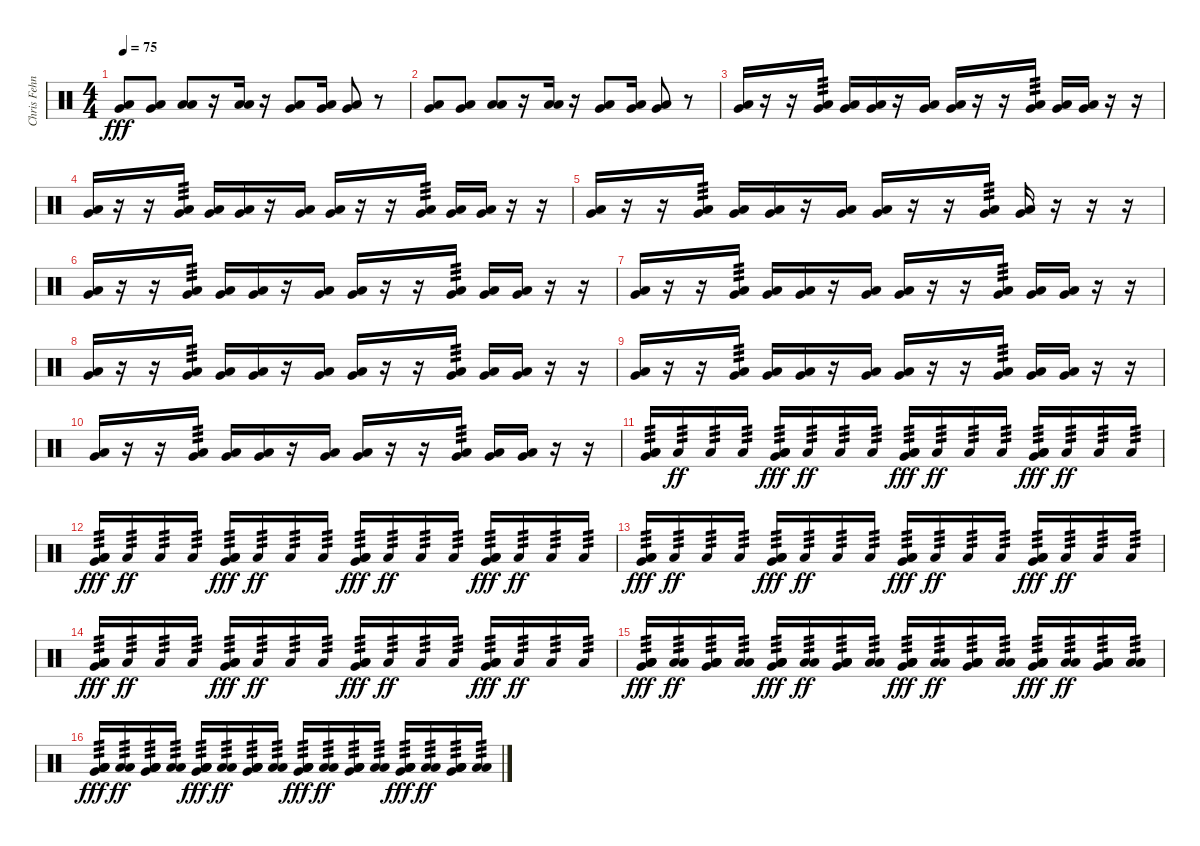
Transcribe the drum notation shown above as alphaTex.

\track ("Chris Fehn" "Chris Fehn") {instrument percussion}
\staff {score}
\articulation defaults
\ts (4 4)
\tempo 75
\clef neutral
\ks c
("Very Low Tom (hit)" "Low Floor Tom (hit)").8{dy fff} ("Very Low Tom (hit)" "Low Floor Tom (hit)").8 ("Low Tom (hit)" "Low Tom (hit)").8 r.16 ("Low Tom (hit)" "Low Tom (hit)").16 r.16 ("Low Floor Tom (hit)" "Very Low Tom (hit)").8 ("Very Low Tom (hit)" "Low Floor Tom (hit)").16 ("Very Low Tom (hit)" "Low Floor Tom (hit)").8 r.8 |
("Very Low Tom (hit)" "Low Floor Tom (hit)").8 ("Very Low Tom (hit)" "Low Floor Tom (hit)").8 ("Low Tom (hit)" "Low Tom (hit)").8 r.16 ("Low Tom (hit)" "Low Tom (hit)").16 r.16 ("Low Floor Tom (hit)" "Very Low Tom (hit)").8 ("Very Low Tom (hit)" "Low Floor Tom (hit)").16 ("Very Low Tom (hit)" "Low Floor Tom (hit)").8 r.8 |
("Very Low Tom (hit)" "Low Floor Tom (hit)").16 r.16 r.16 ("Very Low Tom (hit)" "Low Floor Tom (hit)").16{tp 3} ("Very Low Tom (hit)" "Low Floor Tom (hit)").16 ("Very Low Tom (hit)" "Low Floor Tom (hit)").16 r.16 ("Very Low Tom (hit)" "Low Floor Tom (hit)").16 ("Very Low Tom (hit)" "Low Floor Tom (hit)").16 r.16 r.16 ("Very Low Tom (hit)" "Low Floor Tom (hit)").16{tp 3} ("Very Low Tom (hit)" "Low Floor Tom (hit)").16 ("Very Low Tom (hit)" "Low Floor Tom (hit)").16 r.16 r.16 |
("Very Low Tom (hit)" "Low Floor Tom (hit)").16 r.16 r.16 ("Very Low Tom (hit)" "Low Floor Tom (hit)").16{tp 3} ("Very Low Tom (hit)" "Low Floor Tom (hit)").16 ("Very Low Tom (hit)" "Low Floor Tom (hit)").16 r.16 ("Very Low Tom (hit)" "Low Floor Tom (hit)").16 ("Very Low Tom (hit)" "Low Floor Tom (hit)").16 r.16 r.16 ("Very Low Tom (hit)" "Low Floor Tom (hit)").16{tp 3} ("Very Low Tom (hit)" "Low Floor Tom (hit)").16 ("Very Low Tom (hit)" "Low Floor Tom (hit)").16 r.16 r.16 |
("Very Low Tom (hit)" "Low Floor Tom (hit)").16 r.16 r.16 ("Very Low Tom (hit)" "Low Floor Tom (hit)").16{tp 3} ("Very Low Tom (hit)" "Low Floor Tom (hit)").16 ("Very Low Tom (hit)" "Low Floor Tom (hit)").16 r.16 ("Very Low Tom (hit)" "Low Floor Tom (hit)").16 ("Very Low Tom (hit)" "Low Floor Tom (hit)").16 r.16 r.16 ("Very Low Tom (hit)" "Low Floor Tom (hit)").16{tp 3} ("Very Low Tom (hit)" "Low Floor Tom (hit)").16 r.16 r.16 r.16 |
("Very Low Tom (hit)" "Low Floor Tom (hit)").16 r.16 r.16 ("Very Low Tom (hit)" "Low Floor Tom (hit)").16{tp 3} ("Very Low Tom (hit)" "Low Floor Tom (hit)").16 ("Very Low Tom (hit)" "Low Floor Tom (hit)").16 r.16 ("Very Low Tom (hit)" "Low Floor Tom (hit)").16 ("Very Low Tom (hit)" "Low Floor Tom (hit)").16 r.16 r.16 ("Very Low Tom (hit)" "Low Floor Tom (hit)").16{tp 3} ("Very Low Tom (hit)" "Low Floor Tom (hit)").16 ("Very Low Tom (hit)" "Low Floor Tom (hit)").16 r.16 r.16 |
("Very Low Tom (hit)" "Low Floor Tom (hit)").16 r.16 r.16 ("Very Low Tom (hit)" "Low Floor Tom (hit)").16{tp 3} ("Very Low Tom (hit)" "Low Floor Tom (hit)").16 ("Very Low Tom (hit)" "Low Floor Tom (hit)").16 r.16 ("Very Low Tom (hit)" "Low Floor Tom (hit)").16 ("Very Low Tom (hit)" "Low Floor Tom (hit)").16 r.16 r.16 ("Very Low Tom (hit)" "Low Floor Tom (hit)").16{tp 3} ("Very Low Tom (hit)" "Low Floor Tom (hit)").16 ("Very Low Tom (hit)" "Low Floor Tom (hit)").16 r.16 r.16 |
("Very Low Tom (hit)" "Low Floor Tom (hit)").16 r.16 r.16 ("Very Low Tom (hit)" "Low Floor Tom (hit)").16{tp 3} ("Very Low Tom (hit)" "Low Floor Tom (hit)").16 ("Very Low Tom (hit)" "Low Floor Tom (hit)").16 r.16 ("Very Low Tom (hit)" "Low Floor Tom (hit)").16 ("Very Low Tom (hit)" "Low Floor Tom (hit)").16 r.16 r.16 ("Very Low Tom (hit)" "Low Floor Tom (hit)").16{tp 3} ("Very Low Tom (hit)" "Low Floor Tom (hit)").16 ("Very Low Tom (hit)" "Low Floor Tom (hit)").16 r.16 r.16 |
("Very Low Tom (hit)" "Low Floor Tom (hit)").16 r.16 r.16 ("Very Low Tom (hit)" "Low Floor Tom (hit)").16{tp 3} ("Very Low Tom (hit)" "Low Floor Tom (hit)").16 ("Very Low Tom (hit)" "Low Floor Tom (hit)").16 r.16 ("Very Low Tom (hit)" "Low Floor Tom (hit)").16 ("Very Low Tom (hit)" "Low Floor Tom (hit)").16 r.16 r.16 ("Very Low Tom (hit)" "Low Floor Tom (hit)").16{tp 3} ("Very Low Tom (hit)" "Low Floor Tom (hit)").16 ("Very Low Tom (hit)" "Low Floor Tom (hit)").16 r.16 r.16 |
("Very Low Tom (hit)" "Low Floor Tom (hit)").16 r.16 r.16 ("Very Low Tom (hit)" "Low Floor Tom (hit)").16{tp 3} ("Very Low Tom (hit)" "Low Floor Tom (hit)").16 ("Very Low Tom (hit)" "Low Floor Tom (hit)").16 r.16 ("Very Low Tom (hit)" "Low Floor Tom (hit)").16 ("Very Low Tom (hit)" "Low Floor Tom (hit)").16 r.16 r.16 ("Very Low Tom (hit)" "Low Floor Tom (hit)").16{tp 3} ("Very Low Tom (hit)" "Low Floor Tom (hit)").16 ("Very Low Tom (hit)" "Low Floor Tom (hit)").16 r.16 r.16 |
("Low Floor Tom (hit)" "Very Low Tom (hit)" "Low Floor Tom (hit)").16{tp 3} "Low Floor Tom (hit)".16{tp 3 dy ff} "Low Floor Tom (hit)".16{tp 3} "Low Floor Tom (hit)".16{tp 3} ("Low Floor Tom (hit)" "Very Low Tom (hit)" "Low Floor Tom (hit)").16{tp 3 dy fff} "Low Floor Tom (hit)".16{tp 3 dy ff} "Low Floor Tom (hit)".16{tp 3} "Low Floor Tom (hit)".16{tp 3} ("Low Floor Tom (hit)" "Very Low Tom (hit)" "Low Floor Tom (hit)").16{tp 3 dy fff} "Low Floor Tom (hit)".16{tp 3 dy ff} "Low Floor Tom (hit)".16{tp 3} "Low Floor Tom (hit)".16{tp 3} ("Low Floor Tom (hit)" "Very Low Tom (hit)" "Low Floor Tom (hit)").16{tp 3 dy fff} "Low Floor Tom (hit)".16{tp 3 dy ff} "Low Floor Tom (hit)".16{tp 3} "Low Floor Tom (hit)".16{tp 3} |
("Low Floor Tom (hit)" "Very Low Tom (hit)" "Low Floor Tom (hit)").16{tp 3 dy fff} "Low Floor Tom (hit)".16{tp 3 dy ff} "Low Floor Tom (hit)".16{tp 3} "Low Floor Tom (hit)".16{tp 3} ("Low Floor Tom (hit)" "Very Low Tom (hit)" "Low Floor Tom (hit)").16{tp 3 dy fff} "Low Floor Tom (hit)".16{tp 3 dy ff} "Low Floor Tom (hit)".16{tp 3} "Low Floor Tom (hit)".16{tp 3} ("Low Floor Tom (hit)" "Very Low Tom (hit)" "Low Floor Tom (hit)").16{tp 3 dy fff} "Low Floor Tom (hit)".16{tp 3 dy ff} "Low Floor Tom (hit)".16{tp 3} "Low Floor Tom (hit)".16{tp 3} ("Low Floor Tom (hit)" "Very Low Tom (hit)" "Low Floor Tom (hit)").16{tp 3 dy fff} "Low Floor Tom (hit)".16{tp 3 dy ff} "Low Floor Tom (hit)".16{tp 3} "Low Floor Tom (hit)".16{tp 3} |
("Low Floor Tom (hit)" "Very Low Tom (hit)" "Low Floor Tom (hit)").16{tp 3 dy fff} "Low Floor Tom (hit)".16{tp 3 dy ff} "Low Floor Tom (hit)".16{tp 3} "Low Floor Tom (hit)".16{tp 3} ("Low Floor Tom (hit)" "Very Low Tom (hit)" "Low Floor Tom (hit)").16{tp 3 dy fff} "Low Floor Tom (hit)".16{tp 3 dy ff} "Low Floor Tom (hit)".16{tp 3} "Low Floor Tom (hit)".16{tp 3} ("Low Floor Tom (hit)" "Very Low Tom (hit)" "Low Floor Tom (hit)").16{tp 3 dy fff} "Low Floor Tom (hit)".16{tp 3 dy ff} "Low Floor Tom (hit)".16{tp 3} "Low Floor Tom (hit)".16{tp 3} ("Low Floor Tom (hit)" "Very Low Tom (hit)" "Low Floor Tom (hit)").16{tp 3 dy fff} "Low Floor Tom (hit)".16{tp 3 dy ff} "Low Floor Tom (hit)".16{tp 3} "Low Floor Tom (hit)".16{tp 3} |
("Low Floor Tom (hit)" "Very Low Tom (hit)" "Low Floor Tom (hit)").16{tp 3 dy fff} "Low Floor Tom (hit)".16{tp 3 dy ff} "Low Floor Tom (hit)".16{tp 3} "Low Floor Tom (hit)".16{tp 3} ("Low Floor Tom (hit)" "Very Low Tom (hit)" "Low Floor Tom (hit)").16{tp 3 dy fff} "Low Floor Tom (hit)".16{tp 3 dy ff} "Low Floor Tom (hit)".16{tp 3} "Low Floor Tom (hit)".16{tp 3} ("Low Floor Tom (hit)" "Very Low Tom (hit)" "Low Floor Tom (hit)").16{tp 3 dy fff} "Low Floor Tom (hit)".16{tp 3 dy ff} "Low Floor Tom (hit)".16{tp 3} "Low Floor Tom (hit)".16{tp 3} ("Low Floor Tom (hit)" "Very Low Tom (hit)" "Low Floor Tom (hit)").16{tp 3 dy fff} "Low Floor Tom (hit)".16{tp 3 dy ff} "Low Floor Tom (hit)".16{tp 3} "Low Floor Tom (hit)".16{tp 3} |
("Low Floor Tom (hit)" "Low Floor Tom (hit)" "Very Low Tom (hit)" "Low Floor Tom (hit)").16{tp 3 dy fff} ("Low Floor Tom (hit)" "Low Floor Tom (hit)").16{tp 3 dy ff} ("Low Floor Tom (hit)" "Low Floor Tom (hit)" "Very Low Tom (hit)" "Low Floor Tom (hit)").16{tp 3} ("Low Floor Tom (hit)" "Low Floor Tom (hit)").16{tp 3} ("Low Floor Tom (hit)" "Low Floor Tom (hit)" "Very Low Tom (hit)" "Low Floor Tom (hit)").16{tp 3 dy fff} ("Low Floor Tom (hit)" "Low Floor Tom (hit)").16{tp 3 dy ff} ("Low Floor Tom (hit)" "Low Floor Tom (hit)" "Very Low Tom (hit)" "Low Floor Tom (hit)").16{tp 3} ("Low Floor Tom (hit)" "Low Floor Tom (hit)").16{tp 3} ("Low Floor Tom (hit)" "Low Floor Tom (hit)" "Very Low Tom (hit)" "Low Floor Tom (hit)").16{tp 3 dy fff} ("Low Floor Tom (hit)" "Low Floor Tom (hit)").16{tp 3 dy ff} ("Low Floor Tom (hit)" "Low Floor Tom (hit)" "Very Low Tom (hit)" "Low Floor Tom (hit)").16{tp 3} ("Low Floor Tom (hit)" "Low Floor Tom (hit)").16{tp 3} ("Low Floor Tom (hit)" "Low Floor Tom (hit)" "Very Low Tom (hit)" "Low Floor Tom (hit)").16{tp 3 dy fff} ("Low Floor Tom (hit)" "Low Floor Tom (hit)").16{tp 3 dy ff} ("Low Floor Tom (hit)" "Low Floor Tom (hit)" "Very Low Tom (hit)" "Low Floor Tom (hit)").16{tp 3} ("Low Floor Tom (hit)" "Low Floor Tom (hit)").16{tp 3} |
("Low Floor Tom (hit)" "Low Floor Tom (hit)" "Very Low Tom (hit)" "Low Floor Tom (hit)").16{tp 3 dy fff} ("Low Floor Tom (hit)" "Low Floor Tom (hit)").16{tp 3 dy ff} ("Low Floor Tom (hit)" "Low Floor Tom (hit)" "Very Low Tom (hit)" "Low Floor Tom (hit)").16{tp 3} ("Low Floor Tom (hit)" "Low Floor Tom (hit)").16{tp 3} ("Low Floor Tom (hit)" "Low Floor Tom (hit)" "Very Low Tom (hit)" "Low Floor Tom (hit)").16{tp 3 dy fff} ("Low Floor Tom (hit)" "Low Floor Tom (hit)").16{tp 3 dy ff} ("Low Floor Tom (hit)" "Low Floor Tom (hit)" "Very Low Tom (hit)" "Low Floor Tom (hit)").16{tp 3} ("Low Floor Tom (hit)" "Low Floor Tom (hit)").16{tp 3} ("Low Floor Tom (hit)" "Low Floor Tom (hit)" "Very Low Tom (hit)" "Low Floor Tom (hit)").16{tp 3 dy fff} ("Low Floor Tom (hit)" "Low Floor Tom (hit)").16{tp 3 dy ff} ("Low Floor Tom (hit)" "Low Floor Tom (hit)" "Very Low Tom (hit)" "Low Floor Tom (hit)").16{tp 3} ("Low Floor Tom (hit)" "Low Floor Tom (hit)").16{tp 3} ("Low Floor Tom (hit)" "Low Floor Tom (hit)" "Very Low Tom (hit)" "Low Floor Tom (hit)").16{tp 3 dy fff} ("Low Floor Tom (hit)" "Low Floor Tom (hit)").16{tp 3 dy ff} ("Low Floor Tom (hit)" "Low Floor Tom (hit)" "Very Low Tom (hit)" "Low Floor Tom (hit)").16{tp 3} ("Low Floor Tom (hit)" "Low Floor Tom (hit)").16{tp 3}
